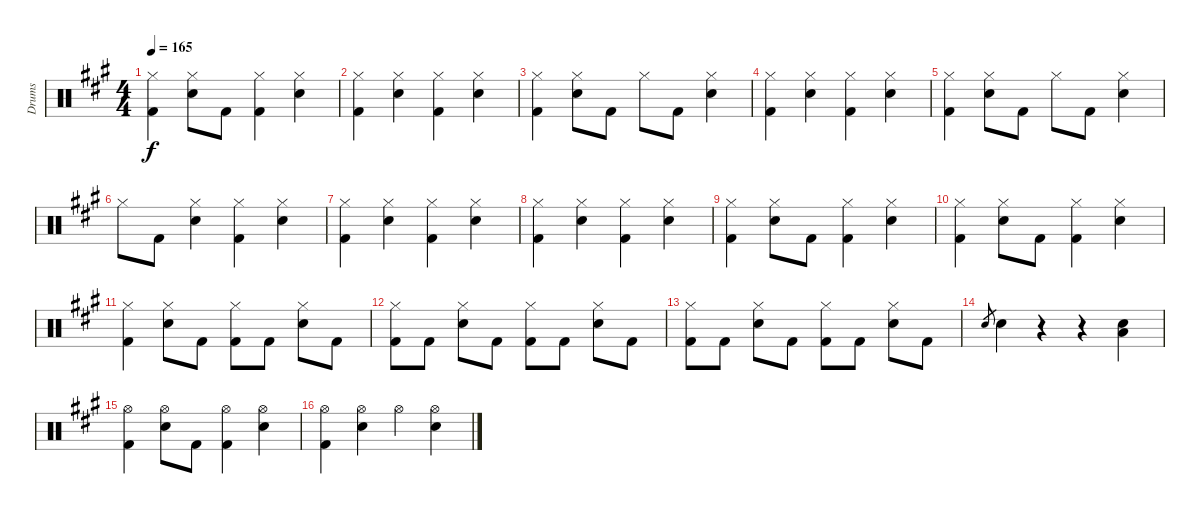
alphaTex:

\track ("Drums" "Drums") {instrument percussion}
\staff {score}
\articulation defaults
\ts (4 4)
\tempo 165
\clef neutral
\ks a
("Hi-Hat (closed)" "Kick (hit) 2").4{dy f} ("Hi-Hat (closed)" "Electric Snare (hit)").8 "Kick (hit) 2".8 ("Hi-Hat (closed)" "Kick (hit) 2").4 ("Hi-Hat (closed)" "Electric Snare (hit)").4 |
("Hi-Hat (closed)" "Kick (hit) 2").4 ("Hi-Hat (closed)" "Electric Snare (hit)").4 ("Hi-Hat (closed)" "Kick (hit) 2").4 ("Hi-Hat (closed)" "Electric Snare (hit)").4 |
("Hi-Hat (closed)" "Kick (hit) 2").4 ("Hi-Hat (closed)" "Electric Snare (hit)").8 "Kick (hit) 2".8 "Hi-Hat (closed)".8 "Kick (hit) 2".8 ("Hi-Hat (closed)" "Electric Snare (hit)").4 |
("Hi-Hat (closed)" "Kick (hit) 2").4 ("Hi-Hat (closed)" "Electric Snare (hit)").4 ("Hi-Hat (closed)" "Kick (hit) 2").4 ("Hi-Hat (closed)" "Electric Snare (hit)").4 |
("Hi-Hat (closed)" "Kick (hit) 2").4 ("Hi-Hat (closed)" "Electric Snare (hit)").8 "Kick (hit) 2".8 "Hi-Hat (closed)".8 "Kick (hit) 2".8 ("Hi-Hat (closed)" "Electric Snare (hit)").4 |
"Hi-Hat (closed)".8 "Kick (hit) 2".8 ("Hi-Hat (closed)" "Electric Snare (hit)").4 ("Hi-Hat (closed)" "Kick (hit) 2").4 ("Hi-Hat (closed)" "Electric Snare (hit)").4 |
("Hi-Hat (closed)" "Kick (hit) 2").4 ("Hi-Hat (closed)" "Electric Snare (hit)").4 ("Hi-Hat (closed)" "Kick (hit) 2").4 ("Hi-Hat (closed)" "Electric Snare (hit)").4 |
("Hi-Hat (closed)" "Kick (hit) 2").4 ("Hi-Hat (closed)" "Electric Snare (hit)").4 ("Hi-Hat (closed)" "Kick (hit) 2").4 ("Hi-Hat (closed)" "Electric Snare (hit)").4 |
("Hi-Hat (closed)" "Kick (hit) 2").4 ("Hi-Hat (closed)" "Electric Snare (hit)").8 "Kick (hit) 2".8 ("Hi-Hat (closed)" "Kick (hit) 2").4 ("Hi-Hat (closed)" "Electric Snare (hit)").4 |
("Hi-Hat (closed)" "Kick (hit) 2").4 ("Hi-Hat (closed)" "Electric Snare (hit)").8 "Kick (hit) 2".8 ("Hi-Hat (closed)" "Kick (hit) 2").4 ("Hi-Hat (closed)" "Electric Snare (hit)").4 |
("Hi-Hat (closed)" "Kick (hit) 2").4 ("Hi-Hat (closed)" "Electric Snare (hit)").8 "Kick (hit) 2".8 ("Hi-Hat (closed)" "Kick (hit) 2").8 "Kick (hit) 2".8 ("Hi-Hat (closed)" "Electric Snare (hit)").8 "Kick (hit) 2".8 |
("Hi-Hat (closed)" "Kick (hit) 2").8 "Kick (hit) 2".8 ("Hi-Hat (closed)" "Electric Snare (hit)").8 "Kick (hit) 2".8 ("Hi-Hat (closed)" "Kick (hit) 2").8 "Kick (hit) 2".8 ("Hi-Hat (closed)" "Electric Snare (hit)").8 "Kick (hit) 2".8 |
("Hi-Hat (closed)" "Kick (hit) 2").8 "Kick (hit) 2".8 ("Hi-Hat (closed)" "Electric Snare (hit)").8 "Kick (hit) 2".8 ("Hi-Hat (closed)" "Kick (hit) 2").8 "Kick (hit) 2".8 ("Hi-Hat (closed)" "Electric Snare (hit)").8 "Kick (hit) 2".8 |
"Electric Snare (hit)".8{gr} "Electric Snare (hit)".4 r.4 r.4 ("Low Tom (hit)" "Electric Snare (hit)").4 |
("Hi-Hat (open)" "Kick (hit) 2").4 ("Hi-Hat (open)" "Electric Snare (hit)").8 "Kick (hit) 2".8 ("Hi-Hat (open)" "Kick (hit) 2").4 ("Hi-Hat (open)" "Electric Snare (hit)").4 |
("Hi-Hat (open)" "Kick (hit) 2").4 ("Hi-Hat (open)" "Electric Snare (hit)").4 "Hi-Hat (open)".4 ("Hi-Hat (open)" "Electric Snare (hit)").4
